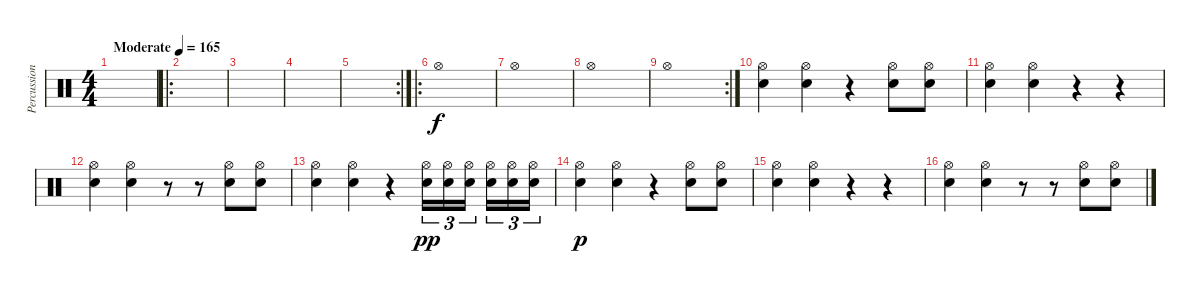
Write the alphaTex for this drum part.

\track ("Percussion" "Percussion") {instrument percussion}
\staff {score}
\articulation defaults
\ts (4 4)
\tempo (165 "Moderate")
\clef neutral
\ks c
|
\ro
|
|
|
\rc 2
|
\ro "Hi-Hat (open)".1
|
"Hi-Hat (open)".1 |
"Hi-Hat (open)".1 |
\rc 2 "Hi-Hat (open)".1
|
("Hi-Hat (open)" "Electric Snare (hit)").4 ("Hi-Hat (open)" "Electric Snare (hit)").4 r.4 ("Hi-Hat (open)" "Electric Snare (hit)").8 ("Hi-Hat (open)" "Electric Snare (hit)").8 |
("Hi-Hat (open)" "Electric Snare (hit)").4 ("Hi-Hat (open)" "Electric Snare (hit)").4 r.4 r.4 |
("Hi-Hat (open)" "Electric Snare (hit)").4 ("Hi-Hat (open)" "Electric Snare (hit)").4 r.8 r.8 ("Hi-Hat (open)" "Electric Snare (hit)").8 ("Hi-Hat (open)" "Electric Snare (hit)").8 |
("Hi-Hat (open)" "Electric Snare (hit)").4 ("Hi-Hat (open)" "Electric Snare (hit)").4 r.4 ("Hi-Hat (open)" "Electric Snare (hit)").16{tu (3 2) dy pp} ("Hi-Hat (open)" "Electric Snare (hit)").16{tu (3 2)} ("Hi-Hat (open)" "Electric Snare (hit)").16{tu (3 2) beam splitsecondary} ("Hi-Hat (open)" "Electric Snare (hit)").16{tu (3 2)} ("Hi-Hat (open)" "Electric Snare (hit)").16{tu (3 2)} ("Hi-Hat (open)" "Electric Snare (hit)").16{tu (3 2)} |
("Hi-Hat (open)" "Electric Snare (hit)").4{dy p} ("Hi-Hat (open)" "Electric Snare (hit)").4 r.4 ("Hi-Hat (open)" "Electric Snare (hit)").8 ("Hi-Hat (open)" "Electric Snare (hit)").8 |
("Hi-Hat (open)" "Electric Snare (hit)").4 ("Hi-Hat (open)" "Electric Snare (hit)").4 r.4 r.4 |
("Hi-Hat (open)" "Electric Snare (hit)").4 ("Hi-Hat (open)" "Electric Snare (hit)").4 r.8 r.8 ("Hi-Hat (open)" "Electric Snare (hit)").8 ("Hi-Hat (open)" "Electric Snare (hit)").8
